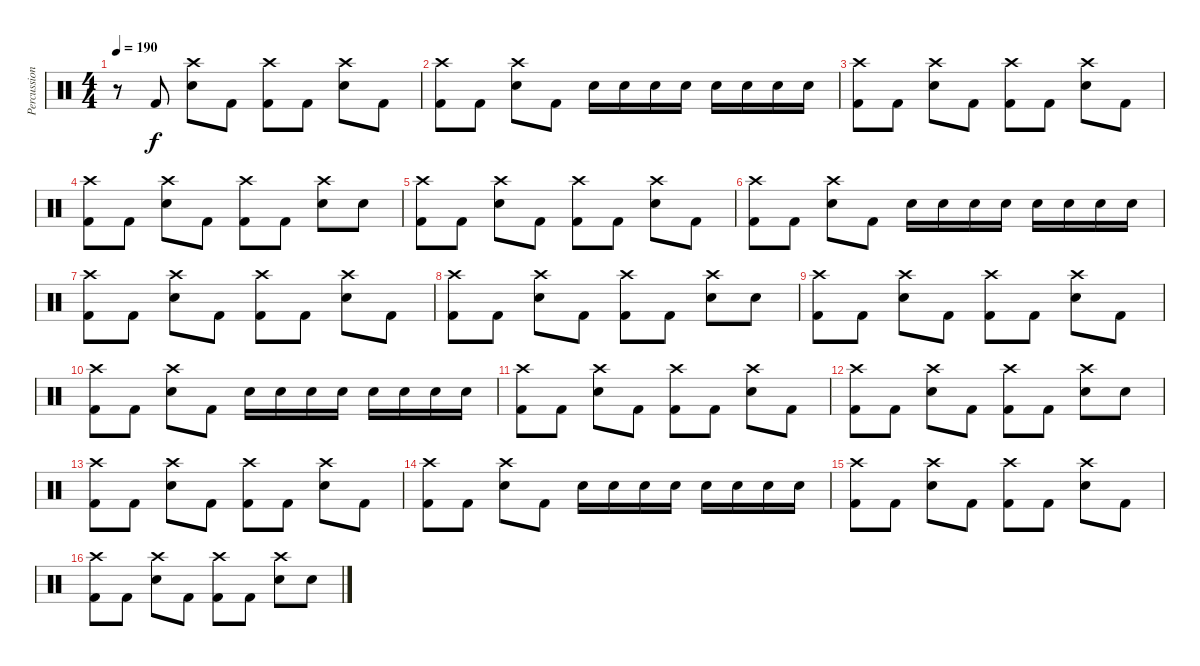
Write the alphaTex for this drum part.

\track ("Percussions" "Percussion") {instrument percussion}
\staff {score}
\articulation defaults
\ts (4 4)
\tempo 190
\clef neutral
\ks c
r.8{dy f} "Kick (hit) 2".8 ("Crash high (hit)" "Electric Snare (hit)").8 "Kick (hit) 2".8 ("Crash high (hit)" "Kick (hit) 2").8 "Kick (hit) 2".8 ("Crash high (hit)" "Electric Snare (hit)").8 "Kick (hit) 2".8 |
("Crash high (hit)" "Kick (hit) 2").8 "Kick (hit) 2".8 ("Crash high (hit)" "Electric Snare (hit)").8 "Kick (hit) 2".8 "Electric Snare (hit)".16 "Electric Snare (hit)".16 "Electric Snare (hit)".16 "Electric Snare (hit)".16 "Electric Snare (hit)".16 "Electric Snare (hit)".16 "Electric Snare (hit)".16 "Electric Snare (hit)".16 |
("Crash high (hit)" "Kick (hit) 2").8 "Kick (hit) 2".8 ("Crash high (hit)" "Electric Snare (hit)").8 "Kick (hit) 2".8 ("Crash high (hit)" "Kick (hit) 2").8 "Kick (hit) 2".8 ("Crash high (hit)" "Electric Snare (hit)").8 "Kick (hit) 2".8 |
("Crash high (hit)" "Kick (hit) 2").8 "Kick (hit) 2".8 ("Crash high (hit)" "Electric Snare (hit)").8 "Kick (hit) 2".8 ("Crash high (hit)" "Kick (hit) 2").8 "Kick (hit) 2".8 ("Crash high (hit)" "Electric Snare (hit)").8 "Electric Snare (hit)".8 |
("Crash high (hit)" "Kick (hit) 2").8 "Kick (hit) 2".8 ("Crash high (hit)" "Electric Snare (hit)").8 "Kick (hit) 2".8 ("Crash high (hit)" "Kick (hit) 2").8 "Kick (hit) 2".8 ("Crash high (hit)" "Electric Snare (hit)").8 "Kick (hit) 2".8 |
("Crash high (hit)" "Kick (hit) 2").8 "Kick (hit) 2".8 ("Crash high (hit)" "Electric Snare (hit)").8 "Kick (hit) 2".8 "Electric Snare (hit)".16 "Electric Snare (hit)".16 "Electric Snare (hit)".16 "Electric Snare (hit)".16 "Electric Snare (hit)".16 "Electric Snare (hit)".16 "Electric Snare (hit)".16 "Electric Snare (hit)".16 |
("Crash high (hit)" "Kick (hit) 2").8 "Kick (hit) 2".8 ("Crash high (hit)" "Electric Snare (hit)").8 "Kick (hit) 2".8 ("Crash high (hit)" "Kick (hit) 2").8 "Kick (hit) 2".8 ("Crash high (hit)" "Electric Snare (hit)").8 "Kick (hit) 2".8 |
("Crash high (hit)" "Kick (hit) 2").8 "Kick (hit) 2".8 ("Crash high (hit)" "Electric Snare (hit)").8 "Kick (hit) 2".8 ("Crash high (hit)" "Kick (hit) 2").8 "Kick (hit) 2".8 ("Crash high (hit)" "Electric Snare (hit)").8 "Electric Snare (hit)".8 |
("Crash high (hit)" "Kick (hit) 2").8 "Kick (hit) 2".8 ("Crash high (hit)" "Electric Snare (hit)").8 "Kick (hit) 2".8 ("Crash high (hit)" "Kick (hit) 2").8 "Kick (hit) 2".8 ("Crash high (hit)" "Electric Snare (hit)").8 "Kick (hit) 2".8 |
("Crash high (hit)" "Kick (hit) 2").8 "Kick (hit) 2".8 ("Crash high (hit)" "Electric Snare (hit)").8 "Kick (hit) 2".8 "Electric Snare (hit)".16 "Electric Snare (hit)".16 "Electric Snare (hit)".16 "Electric Snare (hit)".16 "Electric Snare (hit)".16 "Electric Snare (hit)".16 "Electric Snare (hit)".16 "Electric Snare (hit)".16 |
("Crash high (hit)" "Kick (hit) 2").8 "Kick (hit) 2".8 ("Crash high (hit)" "Electric Snare (hit)").8 "Kick (hit) 2".8 ("Crash high (hit)" "Kick (hit) 2").8 "Kick (hit) 2".8 ("Crash high (hit)" "Electric Snare (hit)").8 "Kick (hit) 2".8 |
("Crash high (hit)" "Kick (hit) 2").8 "Kick (hit) 2".8 ("Crash high (hit)" "Electric Snare (hit)").8 "Kick (hit) 2".8 ("Crash high (hit)" "Kick (hit) 2").8 "Kick (hit) 2".8 ("Crash high (hit)" "Electric Snare (hit)").8 "Electric Snare (hit)".8 |
("Crash high (hit)" "Kick (hit) 2").8 "Kick (hit) 2".8 ("Crash high (hit)" "Electric Snare (hit)").8 "Kick (hit) 2".8 ("Crash high (hit)" "Kick (hit) 2").8 "Kick (hit) 2".8 ("Crash high (hit)" "Electric Snare (hit)").8 "Kick (hit) 2".8 |
("Crash high (hit)" "Kick (hit) 2").8 "Kick (hit) 2".8 ("Crash high (hit)" "Electric Snare (hit)").8 "Kick (hit) 2".8 "Electric Snare (hit)".16 "Electric Snare (hit)".16 "Electric Snare (hit)".16 "Electric Snare (hit)".16 "Electric Snare (hit)".16 "Electric Snare (hit)".16 "Electric Snare (hit)".16 "Electric Snare (hit)".16 |
("Crash high (hit)" "Kick (hit) 2").8 "Kick (hit) 2".8 ("Crash high (hit)" "Electric Snare (hit)").8 "Kick (hit) 2".8 ("Crash high (hit)" "Kick (hit) 2").8 "Kick (hit) 2".8 ("Crash high (hit)" "Electric Snare (hit)").8 "Kick (hit) 2".8 |
("Crash high (hit)" "Kick (hit) 2").8 "Kick (hit) 2".8 ("Crash high (hit)" "Electric Snare (hit)").8 "Kick (hit) 2".8 ("Crash high (hit)" "Kick (hit) 2").8 "Kick (hit) 2".8 ("Crash high (hit)" "Electric Snare (hit)").8 "Electric Snare (hit)".8
